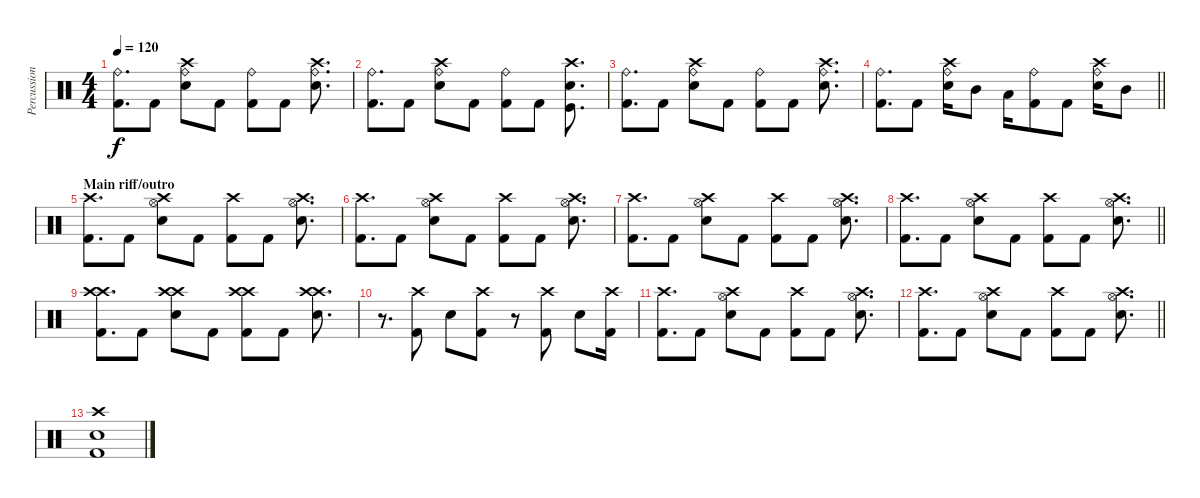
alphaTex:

\track ("Percussion" "Percussion") {instrument percussion}
\staff {score}
\articulation defaults
\ts (4 4)
\tempo 120
\clef neutral
\ks c
("Ride (bell)" "Kick (hit) 2").8{d dy f} "Kick (hit) 2".8 ("Ride (bell)" "Crash high (hit)" "Electric Snare (hit)").8 "Kick (hit) 2".8 ("Ride (bell)" "Kick (hit) 2").8 "Kick (hit) 2".8 ("Ride (bell)" "Crash high (hit)" "Electric Snare (hit)").8{d} |
("Ride (bell)" "Kick (hit) 2").8{d} "Kick (hit) 2".8 ("Ride (bell)" "Crash high (hit)" "Electric Snare (hit)").8 "Kick (hit) 2".8 ("Ride (bell)" "Kick (hit) 2").8 "Kick (hit) 2".8 ("Kick (hit)" "Crash high (hit)" "Electric Snare (hit)").8{d} |
("Ride (bell)" "Kick (hit) 2").8{d} "Kick (hit) 2".8 ("Ride (bell)" "Crash high (hit)" "Electric Snare (hit)").8 "Kick (hit) 2".8 ("Ride (bell)" "Kick (hit) 2").8 "Kick (hit) 2".8 ("Ride (bell)" "Crash high (hit)" "Electric Snare (hit)").8{d} |
\barLineRight lightlight
("Ride (bell)" "Kick (hit) 2").8{d} "Kick (hit) 2".8 ("Ride (bell)" "Crash high (hit)" "Electric Snare (hit)").16 "Mid Tom (hit)".8 "Low Tom (hit)".16 ("Ride (bell)" "Kick (hit) 2").8 "Kick (hit) 2".8 ("Ride (bell)" "Crash high (hit)" "Electric Snare (hit)").16 "Mid Tom (hit)".8 |
\section ("" "Main riff/outro")
("Crash high (hit)" "Kick (hit) 2").8{d} "Kick (hit) 2".8 ("Crash high (hit)" "Hi-Hat (open)" "Electric Snare (hit)").8 "Kick (hit) 2".8 ("Crash high (hit)" "Kick (hit) 2").8 "Kick (hit) 2".8 ("Crash high (hit)" "Hi-Hat (open)" "Electric Snare (hit)").8{d} |
("Crash high (hit)" "Kick (hit) 2").8{d} "Kick (hit) 2".8 ("Crash high (hit)" "Hi-Hat (open)" "Electric Snare (hit)").8 "Kick (hit) 2".8 ("Crash high (hit)" "Kick (hit) 2").8 "Kick (hit) 2".8 ("Crash high (hit)" "Hi-Hat (open)" "Electric Snare (hit)").8{d} |
("Crash high (hit)" "Kick (hit) 2").8{d} "Kick (hit) 2".8 ("Crash high (hit)" "Hi-Hat (open)" "Electric Snare (hit)").8 "Kick (hit) 2".8 ("Crash high (hit)" "Kick (hit) 2").8 "Kick (hit) 2".8 ("Crash high (hit)" "Hi-Hat (open)" "Electric Snare (hit)").8{d} |
\barLineRight lightlight
("Crash high (hit)" "Kick (hit) 2").8{d} "Kick (hit) 2".8 ("Crash high (hit)" "Hi-Hat (open)" "Electric Snare (hit)").8 "Kick (hit) 2".8 ("Crash high (hit)" "Kick (hit) 2").8 "Kick (hit) 2".8 ("Crash high (hit)" "Hi-Hat (open)" "Electric Snare (hit)").8{d} |
("Crash high (hit)" "Crash high (hit)" "Kick (hit) 2").8{d} "Kick (hit) 2".8 ("Crash high (hit)" "Crash high (hit)" "Electric Snare (hit)").8 "Kick (hit) 2".8 ("Crash high (hit)" "Crash high (hit)" "Kick (hit) 2").8 "Kick (hit) 2".8 ("Crash high (hit)" "Crash high (hit)" "Electric Snare (hit)").8{d} |
r.8{d} ("Crash high (hit)" "Kick (hit) 2").8 "Electric Snare (hit)".8 ("Crash high (hit)" "Kick (hit) 2").8 r.8 ("Crash high (hit)" "Kick (hit) 2").8 "Electric Snare (hit)".8 ("Crash high (hit)" "Kick (hit) 2").16 |
("Crash high (hit)" "Kick (hit) 2").8{d} "Kick (hit) 2".8 ("Crash high (hit)" "Hi-Hat (open)" "Electric Snare (hit)").8 "Kick (hit) 2".8 ("Crash high (hit)" "Kick (hit) 2").8 "Kick (hit) 2".8 ("Crash high (hit)" "Hi-Hat (open)" "Electric Snare (hit)").8{d} |
\barLineRight lightlight
("Crash high (hit)" "Kick (hit) 2").8{d} "Kick (hit) 2".8 ("Crash high (hit)" "Hi-Hat (open)" "Electric Snare (hit)").8 "Kick (hit) 2".8 ("Crash high (hit)" "Kick (hit) 2").8 "Kick (hit) 2".8 ("Crash high (hit)" "Hi-Hat (open)" "Electric Snare (hit)").8{d} |
("Crash high (hit)" "Electric Snare (hit)" "Kick (hit) 2").1
